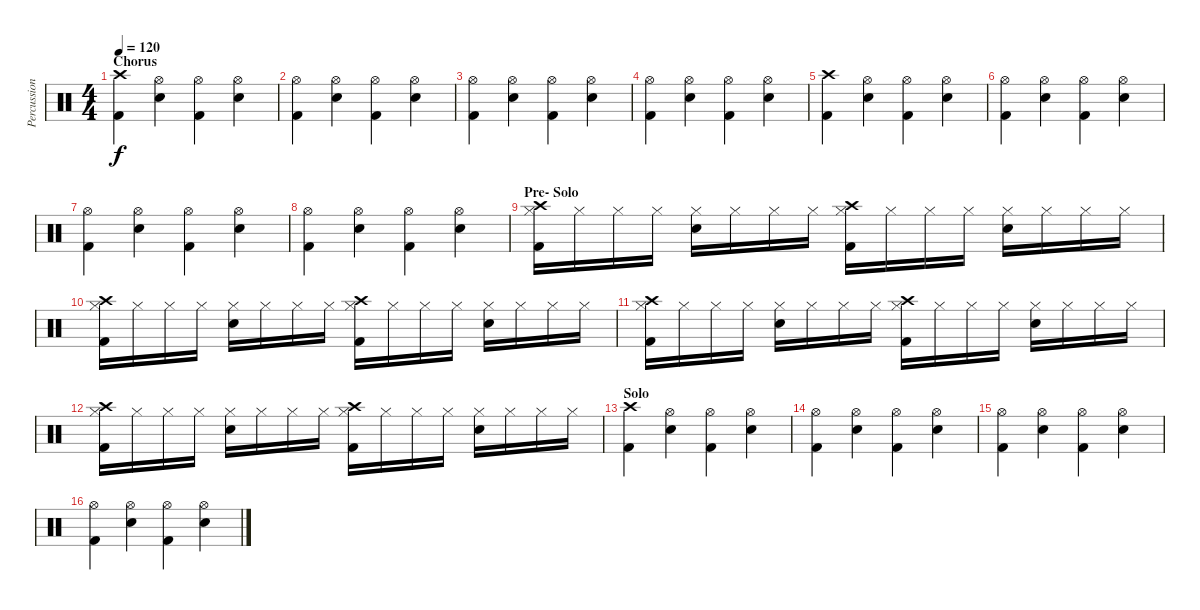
\track ("Percussion" "Percussion") {instrument percussion}
\staff {score}
\articulation defaults
\ts (4 4)
\section ("" "Chorus")
\tempo 120
\clef neutral
\ks c
("Crash high (hit)" "Kick (hit) 2").4{dy f} ("Hi-Hat (open)" "Snare (hit) 2").4 ("Hi-Hat (open)" "Kick (hit) 2").4 ("Hi-Hat (open)" "Snare (hit) 2").4 |
("Hi-Hat (open)" "Kick (hit) 2").4 ("Hi-Hat (open)" "Snare (hit) 2").4 ("Hi-Hat (open)" "Kick (hit) 2").4 ("Hi-Hat (open)" "Snare (hit) 2").4 |
("Hi-Hat (open)" "Kick (hit) 2").4 ("Hi-Hat (open)" "Snare (hit) 2").4 ("Hi-Hat (open)" "Kick (hit) 2").4 ("Hi-Hat (open)" "Snare (hit) 2").4 |
("Hi-Hat (open)" "Kick (hit) 2").4 ("Hi-Hat (open)" "Snare (hit) 2").4 ("Hi-Hat (open)" "Kick (hit) 2").4 ("Hi-Hat (open)" "Snare (hit) 2").4 |
("Crash high (hit)" "Kick (hit) 2").4 ("Hi-Hat (open)" "Snare (hit) 2").4 ("Hi-Hat (open)" "Kick (hit) 2").4 ("Hi-Hat (open)" "Snare (hit) 2").4 |
("Hi-Hat (open)" "Kick (hit) 2").4 ("Hi-Hat (open)" "Snare (hit) 2").4 ("Hi-Hat (open)" "Kick (hit) 2").4 ("Hi-Hat (open)" "Snare (hit) 2").4 |
("Hi-Hat (open)" "Kick (hit) 2").4 ("Hi-Hat (open)" "Snare (hit) 2").4 ("Hi-Hat (open)" "Kick (hit) 2").4 ("Hi-Hat (open)" "Snare (hit) 2").4 |
("Hi-Hat (open)" "Kick (hit) 2").4 ("Hi-Hat (open)" "Snare (hit) 2").4 ("Hi-Hat (open)" "Kick (hit) 2").4 ("Hi-Hat (open)" "Snare (hit) 2").4 |
\section ("" "Pre- Solo")
("Hi-Hat (closed)" "Kick (hit) 2" "Crash high (hit)").16 "Hi-Hat (closed)".16 "Hi-Hat (closed)".16 "Hi-Hat (closed)".16 ("Hi-Hat (closed)" "Snare (hit) 2").16 "Hi-Hat (closed)".16 "Hi-Hat (closed)".16 "Hi-Hat (closed)".16 ("Hi-Hat (closed)" "Kick (hit) 2" "Crash high (hit)").16 "Hi-Hat (closed)".16 "Hi-Hat (closed)".16 "Hi-Hat (closed)".16 ("Hi-Hat (closed)" "Snare (hit) 2").16 "Hi-Hat (closed)".16 "Hi-Hat (closed)".16 "Hi-Hat (closed)".16 |
("Hi-Hat (closed)" "Kick (hit) 2" "Crash high (hit)").16 "Hi-Hat (closed)".16 "Hi-Hat (closed)".16 "Hi-Hat (closed)".16 ("Hi-Hat (closed)" "Snare (hit) 2").16 "Hi-Hat (closed)".16 "Hi-Hat (closed)".16 "Hi-Hat (closed)".16 ("Hi-Hat (closed)" "Kick (hit) 2" "Crash high (hit)").16 "Hi-Hat (closed)".16 "Hi-Hat (closed)".16 "Hi-Hat (closed)".16 ("Hi-Hat (closed)" "Snare (hit) 2").16 "Hi-Hat (closed)".16 "Hi-Hat (closed)".16 "Hi-Hat (closed)".16 |
("Hi-Hat (closed)" "Kick (hit) 2" "Crash high (hit)").16 "Hi-Hat (closed)".16 "Hi-Hat (closed)".16 "Hi-Hat (closed)".16 ("Hi-Hat (closed)" "Snare (hit) 2").16 "Hi-Hat (closed)".16 "Hi-Hat (closed)".16 "Hi-Hat (closed)".16 ("Hi-Hat (closed)" "Kick (hit) 2" "Crash high (hit)").16 "Hi-Hat (closed)".16 "Hi-Hat (closed)".16 "Hi-Hat (closed)".16 ("Hi-Hat (closed)" "Snare (hit) 2").16 "Hi-Hat (closed)".16 "Hi-Hat (closed)".16 "Hi-Hat (closed)".16 |
("Hi-Hat (closed)" "Kick (hit) 2" "Crash high (hit)").16 "Hi-Hat (closed)".16 "Hi-Hat (closed)".16 "Hi-Hat (closed)".16 ("Hi-Hat (closed)" "Snare (hit) 2").16 "Hi-Hat (closed)".16 "Hi-Hat (closed)".16 "Hi-Hat (closed)".16 ("Hi-Hat (closed)" "Kick (hit) 2" "Crash high (hit)").16 "Hi-Hat (closed)".16 "Hi-Hat (closed)".16 "Hi-Hat (closed)".16 ("Hi-Hat (closed)" "Snare (hit) 2").16 "Hi-Hat (closed)".16 "Hi-Hat (closed)".16 "Hi-Hat (closed)".16 |
\section ("" "Solo")
("Crash high (hit)" "Kick (hit) 2").4 ("Hi-Hat (open)" "Snare (hit) 2").4 ("Hi-Hat (open)" "Kick (hit) 2").4 ("Hi-Hat (open)" "Snare (hit) 2").4 |
("Hi-Hat (open)" "Kick (hit) 2").4 ("Hi-Hat (open)" "Snare (hit) 2").4 ("Hi-Hat (open)" "Kick (hit) 2").4 ("Hi-Hat (open)" "Snare (hit) 2").4 |
("Hi-Hat (open)" "Kick (hit) 2").4 ("Hi-Hat (open)" "Snare (hit) 2").4 ("Hi-Hat (open)" "Kick (hit) 2").4 ("Hi-Hat (open)" "Snare (hit) 2").4 |
("Hi-Hat (open)" "Kick (hit) 2").4 ("Hi-Hat (open)" "Snare (hit) 2").4 ("Hi-Hat (open)" "Kick (hit) 2").4 ("Hi-Hat (open)" "Snare (hit) 2").4
